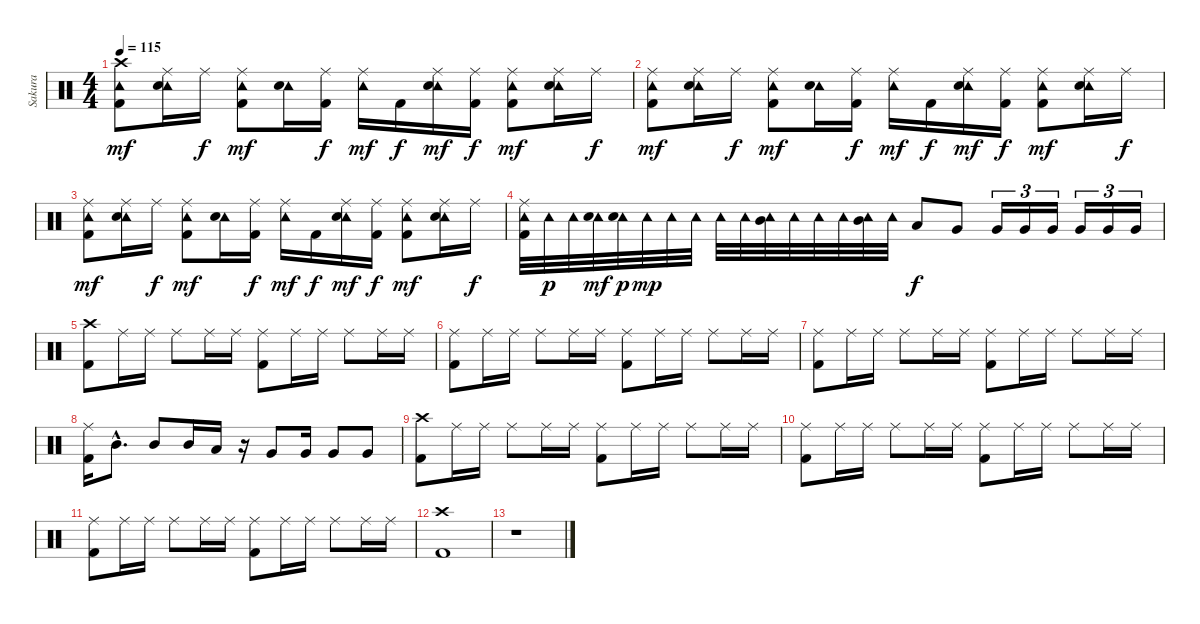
\track ("Sakura" "Sakura") {instrument percussion}
\staff {score}
\articulation defaults
\ts (4 4)
\tempo 115
\clef neutral
\ks c
("Crash high (hit)" "Tambourine (hit)" "Kick (hit) 2").8{dy mf} ("Ride (middle)" "Tambourine (hit)" "Electric Snare (hit)").16 "Ride (middle)".16{dy f} ("Ride (middle)" "Tambourine (hit)" "Kick (hit) 2").8{dy mf} ("Tambourine (hit)" "Electric Snare (hit)").16 ("Ride (middle)" "Kick (hit) 2").16{dy f} ("Ride (middle)" "Tambourine (hit)").16{dy mf} "Kick (hit) 2".16{dy f} ("Ride (middle)" "Tambourine (hit)" "Electric Snare (hit)").16{dy mf} ("Ride (middle)" "Kick (hit) 2").16{dy f} ("Ride (middle)" "Tambourine (hit)" "Kick (hit) 2").8{dy mf} ("Ride (middle)" "Tambourine (hit)" "Electric Snare (hit)").16 "Ride (middle)".16{dy f} |
("Ride (middle)" "Tambourine (hit)" "Kick (hit) 2").8{dy mf} ("Ride (middle)" "Tambourine (hit)" "Electric Snare (hit)").16 "Ride (middle)".16{dy f} ("Ride (middle)" "Tambourine (hit)" "Kick (hit) 2").8{dy mf} ("Tambourine (hit)" "Electric Snare (hit)").16 ("Ride (middle)" "Kick (hit) 2").16{dy f} ("Ride (middle)" "Tambourine (hit)").16{dy mf} "Kick (hit) 2".16{dy f} ("Ride (middle)" "Tambourine (hit)" "Electric Snare (hit)").16{dy mf} ("Ride (middle)" "Kick (hit) 2").16{dy f} ("Ride (middle)" "Tambourine (hit)" "Kick (hit) 2").8{dy mf} ("Ride (middle)" "Tambourine (hit)" "Electric Snare (hit)").16 "Ride (middle)".16{dy f} |
("Ride (middle)" "Tambourine (hit)" "Kick (hit) 2").8{dy mf} ("Ride (middle)" "Tambourine (hit)" "Electric Snare (hit)").16 "Ride (middle)".16{dy f} ("Ride (middle)" "Tambourine (hit)" "Kick (hit) 2").8{dy mf} ("Tambourine (hit)" "Electric Snare (hit)").16 ("Ride (middle)" "Kick (hit) 2").16{dy f} ("Ride (middle)" "Tambourine (hit)").16{dy mf} "Kick (hit) 2".16{dy f} ("Ride (middle)" "Tambourine (hit)" "Electric Snare (hit)").16{dy mf} ("Ride (middle)" "Kick (hit) 2").16{dy f} ("Ride (middle)" "Tambourine (hit)" "Kick (hit) 2").8{dy mf} ("Ride (middle)" "Tambourine (hit)" "Electric Snare (hit)").16 "Ride (middle)".16{dy f} |
("Ride (middle)" "Tambourine (hit)" "Kick (hit) 2").32 "Tambourine (hit)".32{dy p} "Tambourine (hit)".32 ("Tambourine (hit)" "Electric Snare (hit)").32{dy mf} ("Tambourine (hit)" "Electric Snare (hit)").32{dy p} "Tambourine (hit)".32{dy mp} "Tambourine (hit)".32 "Tambourine (hit)".32 "Tambourine (hit)".32 "Tambourine (hit)".32 ("Tambourine (hit)" "Mid Tom (hit)").32 "Tambourine (hit)".32 "Tambourine (hit)".32 "Tambourine (hit)".32 ("Tambourine (hit)" "Mid Tom (hit)").32 "Tambourine (hit)".32 "Low Tom (hit)".8{dy f} "Very Low Tom (hit)".8 "Very Low Tom (hit)".16{tu (3 2)} "Very Low Tom (hit)".16{tu (3 2)} "Very Low Tom (hit)".16{tu (3 2)} "Very Low Tom (hit)".16{tu (3 2)} "Very Low Tom (hit)".16{tu (3 2)} "Very Low Tom (hit)".16{tu (3 2)} |
("Crash high (hit)" "Kick (hit) 2").8 "Ride (middle)".16 "Ride (middle)".16 "Ride (middle)".8 "Ride (middle)".16 "Ride (middle)".16 ("Ride (middle)" "Kick (hit) 2").8 "Ride (middle)".16 "Ride (middle)".16 "Ride (middle)".8 "Ride (middle)".16 "Ride (middle)".16 |
("Ride (middle)" "Kick (hit) 2").8 "Ride (middle)".16 "Ride (middle)".16 "Ride (middle)".8 "Ride (middle)".16 "Ride (middle)".16 ("Ride (middle)" "Kick (hit) 2").8 "Ride (middle)".16 "Ride (middle)".16 "Ride (middle)".8 "Ride (middle)".16 "Ride (middle)".16 |
("Ride (middle)" "Kick (hit) 2").8 "Ride (middle)".16 "Ride (middle)".16 "Ride (middle)".8 "Ride (middle)".16 "Ride (middle)".16 ("Ride (middle)" "Kick (hit) 2").8 "Ride (middle)".16 "Ride (middle)".16 "Ride (middle)".8 "Ride (middle)".16 "Ride (middle)".16 |
("Ride (middle)" "Kick (hit) 2").16 "Mid Tom (hit)"{hac}.8{d} "Mid Tom (hit)".8 "Mid Tom (hit)".16 "Low Tom (hit)".16 r.16 "Very Low Tom (hit)".8 "Very Low Tom (hit)".16 "Very Low Tom (hit)".8 "Very Low Tom (hit)".8 |
("Crash high (hit)" "Kick (hit) 2").8 "Ride (middle)".16 "Ride (middle)".16 "Ride (middle)".8 "Ride (middle)".16 "Ride (middle)".16 ("Ride (middle)" "Kick (hit) 2").8 "Ride (middle)".16 "Ride (middle)".16 "Ride (middle)".8 "Ride (middle)".16 "Ride (middle)".16 |
("Ride (middle)" "Kick (hit) 2").8 "Ride (middle)".16 "Ride (middle)".16 "Ride (middle)".8 "Ride (middle)".16 "Ride (middle)".16 ("Ride (middle)" "Kick (hit) 2").8 "Ride (middle)".16 "Ride (middle)".16 "Ride (middle)".8 "Ride (middle)".16 "Ride (middle)".16 |
("Ride (middle)" "Kick (hit) 2").8 "Ride (middle)".16 "Ride (middle)".16 "Ride (middle)".8 "Ride (middle)".16 "Ride (middle)".16 ("Ride (middle)" "Kick (hit) 2").8 "Ride (middle)".16 "Ride (middle)".16 "Ride (middle)".8 "Ride (middle)".16 "Ride (middle)".16 |
("Crash high (hit)" "Kick (hit) 2").1 |
r.1
